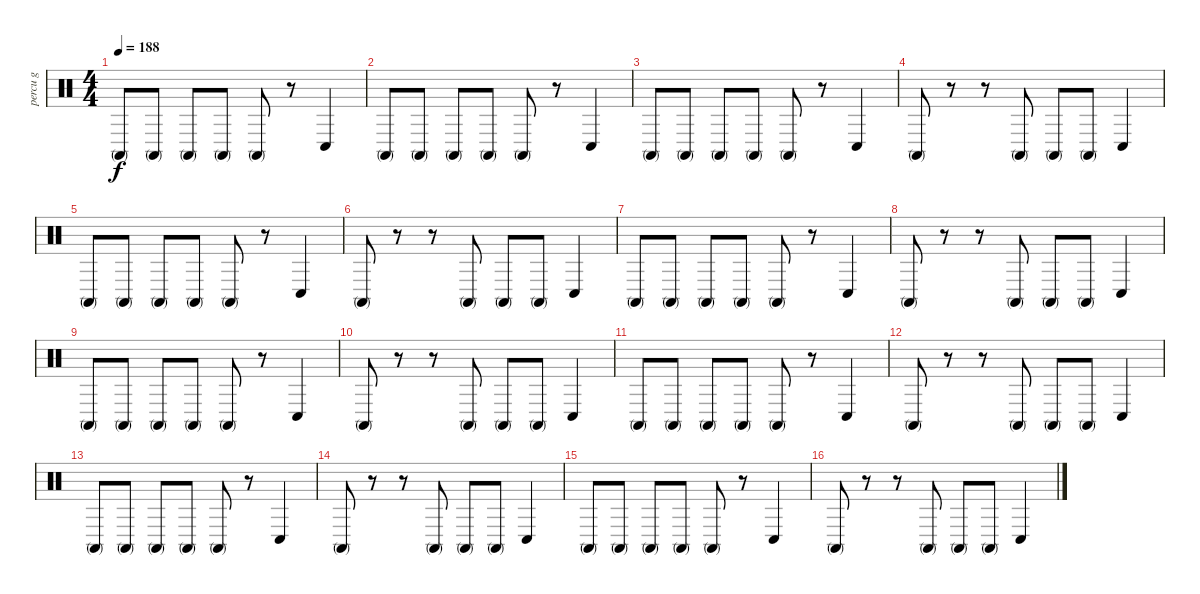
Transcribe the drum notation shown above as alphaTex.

\track ("percu g" "percu g") {instrument percussion}
\staff {score}
\articulation defaults
\ts (4 4)
\tempo 188
\clef neutral
\ks c "Conga high (mute)".8{dy f} "Conga high (mute)".8 "Conga high (mute)".8 "Conga high (mute)".8 "Conga high (mute)".8
r.8 "Conga low (hit)".4 |
"Conga high (mute)".8 "Conga high (mute)".8 "Conga high (mute)".8 "Conga high (mute)".8 "Conga high (mute)".8 r.8 "Conga low (hit)".4 |
"Conga high (mute)".8 "Conga high (mute)".8 "Conga high (mute)".8 "Conga high (mute)".8 "Conga high (mute)".8 r.8 "Conga low (hit)".4 |
"Conga high (mute)".8 r.8 r.8 "Conga high (mute)".8 "Conga high (mute)".8 "Conga high (mute)".8 "Conga low (hit)".4 |
"Conga high (mute)".8 "Conga high (mute)".8 "Conga high (mute)".8 "Conga high (mute)".8 "Conga high (mute)".8 r.8 "Conga low (hit)".4 |
"Conga high (mute)".8 r.8 r.8 "Conga high (mute)".8 "Conga high (mute)".8 "Conga high (mute)".8 "Conga low (hit)".4 |
"Conga high (mute)".8 "Conga high (mute)".8 "Conga high (mute)".8 "Conga high (mute)".8 "Conga high (mute)".8 r.8 "Conga low (hit)".4 |
"Conga high (mute)".8 r.8 r.8 "Conga high (mute)".8 "Conga high (mute)".8 "Conga high (mute)".8 "Conga low (hit)".4 |
"Conga high (mute)".8 "Conga high (mute)".8 "Conga high (mute)".8 "Conga high (mute)".8 "Conga high (mute)".8 r.8 "Conga low (hit)".4 |
"Conga high (mute)".8 r.8 r.8 "Conga high (mute)".8 "Conga high (mute)".8 "Conga high (mute)".8 "Conga low (hit)".4 |
"Conga high (mute)".8 "Conga high (mute)".8 "Conga high (mute)".8 "Conga high (mute)".8 "Conga high (mute)".8 r.8 "Conga low (hit)".4 |
"Conga high (mute)".8 r.8 r.8 "Conga high (mute)".8 "Conga high (mute)".8 "Conga high (mute)".8 "Conga low (hit)".4 |
"Conga high (mute)".8 "Conga high (mute)".8 "Conga high (mute)".8 "Conga high (mute)".8 "Conga high (mute)".8 r.8 "Conga low (hit)".4 |
"Conga high (mute)".8 r.8 r.8 "Conga high (mute)".8 "Conga high (mute)".8 "Conga high (mute)".8 "Conga low (hit)".4 |
"Conga high (mute)".8 "Conga high (mute)".8 "Conga high (mute)".8 "Conga high (mute)".8 "Conga high (mute)".8 r.8 "Conga low (hit)".4 |
"Conga high (mute)".8 r.8 r.8 "Conga high (mute)".8 "Conga high (mute)".8 "Conga high (mute)".8 "Conga low (hit)".4
